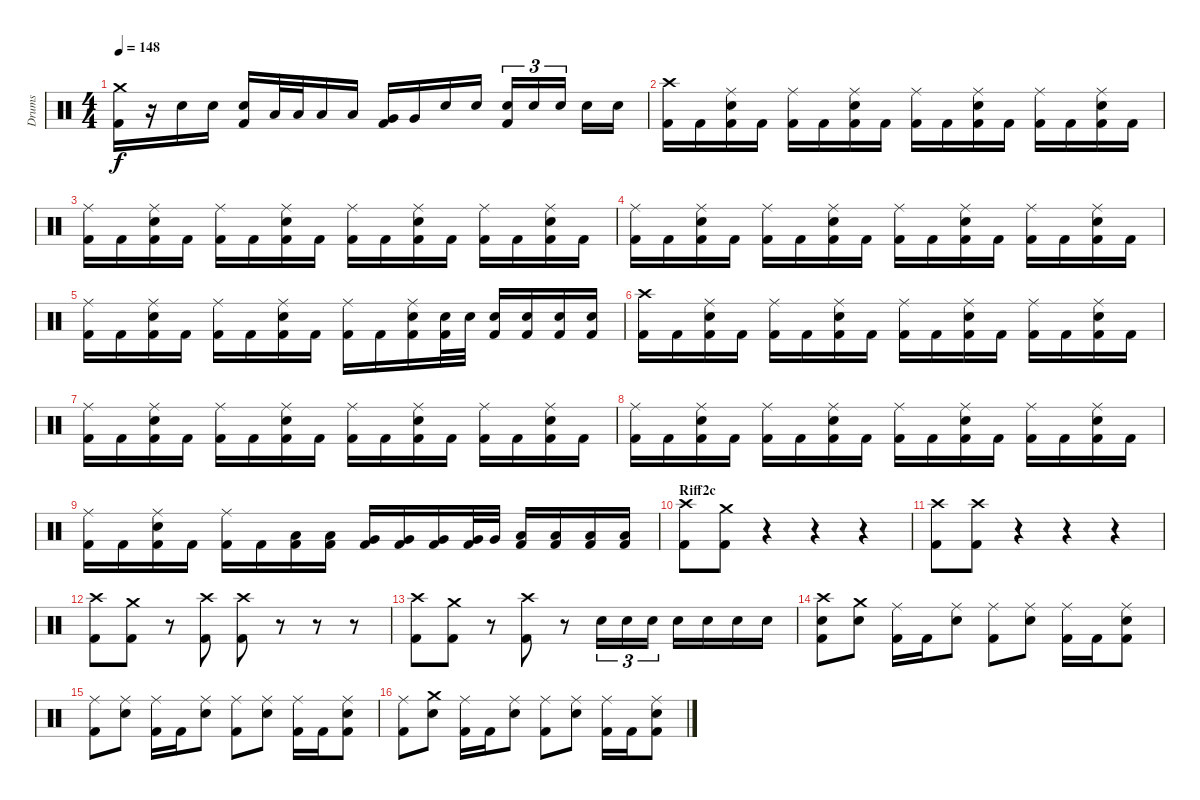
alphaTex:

\track ("Drums" "Drums") {instrument percussion}
\staff {score}
\articulation defaults
\ts (4 4)
\tempo 148
\clef neutral
\ks c
("Kick (hit) 2" "Crash medium (hit)").16{dy f} r.16 "Electric Snare (hit)".16 "Electric Snare (hit)".16 ("Kick (hit) 2" "Electric Snare (hit)").16 "Low Tom (hit)".32 "Low Tom (hit)".32 "Low Tom (hit)".16 "Low Tom (hit)".16 ("Kick (hit) 2" "Very Low Tom (hit)").16 "Very Low Tom (hit)".16 "Electric Snare (hit)".16 "Electric Snare (hit)".16 ("Kick (hit) 2" "Electric Snare (hit)").16{tu (3 2)} "Electric Snare (hit)".16{tu (3 2)} "Electric Snare (hit)".16{tu (3 2)} "Electric Snare (hit)".16 "Electric Snare (hit)".16 |
("Kick (hit) 2" "Crash high (hit)").16 "Kick (hit) 2".16 ("Kick (hit) 2" "Electric Snare (hit)" "Ride (middle)").16 "Kick (hit) 2".16 ("Kick (hit) 2" "Ride (middle)").16 "Kick (hit) 2".16 ("Kick (hit) 2" "Electric Snare (hit)" "Ride (middle)").16 "Kick (hit) 2".16 ("Kick (hit) 2" "Ride (middle)").16 "Kick (hit) 2".16 ("Kick (hit) 2" "Electric Snare (hit)" "Ride (middle)").16 "Kick (hit) 2".16 ("Kick (hit) 2" "Ride (middle)").16 "Kick (hit) 2".16 ("Kick (hit) 2" "Electric Snare (hit)" "Ride (middle)").16 "Kick (hit) 2".16 |
("Kick (hit) 2" "Ride (middle)").16 "Kick (hit) 2".16 ("Kick (hit) 2" "Electric Snare (hit)" "Ride (middle)").16 "Kick (hit) 2".16 ("Kick (hit) 2" "Ride (middle)").16 "Kick (hit) 2".16 ("Kick (hit) 2" "Electric Snare (hit)" "Ride (middle)").16 "Kick (hit) 2".16 ("Kick (hit) 2" "Ride (middle)").16 "Kick (hit) 2".16 ("Kick (hit) 2" "Electric Snare (hit)" "Ride (middle)").16 "Kick (hit) 2".16 ("Kick (hit) 2" "Ride (middle)").16 "Kick (hit) 2".16 ("Kick (hit) 2" "Electric Snare (hit)" "Ride (middle)").16 "Kick (hit) 2".16 |
("Kick (hit) 2" "Ride (middle)").16 "Kick (hit) 2".16 ("Kick (hit) 2" "Electric Snare (hit)" "Ride (middle)").16 "Kick (hit) 2".16 ("Kick (hit) 2" "Ride (middle)").16 "Kick (hit) 2".16 ("Kick (hit) 2" "Electric Snare (hit)" "Ride (middle)").16 "Kick (hit) 2".16 ("Kick (hit) 2" "Ride (middle)").16 "Kick (hit) 2".16 ("Kick (hit) 2" "Electric Snare (hit)" "Ride (middle)").16 "Kick (hit) 2".16 ("Kick (hit) 2" "Ride (middle)").16 "Kick (hit) 2".16 ("Kick (hit) 2" "Electric Snare (hit)" "Ride (middle)").16 "Kick (hit) 2".16 |
("Kick (hit) 2" "Ride (middle)").16 "Kick (hit) 2".16 ("Kick (hit) 2" "Electric Snare (hit)" "Ride (middle)").16 "Kick (hit) 2".16 ("Kick (hit) 2" "Ride (middle)").16 "Kick (hit) 2".16 ("Kick (hit) 2" "Electric Snare (hit)" "Ride (middle)").16 "Kick (hit) 2".16 ("Kick (hit) 2" "Ride (middle)").16 "Kick (hit) 2".16 ("Kick (hit) 2" "Electric Snare (hit)" "Ride (middle)").16 ("Kick (hit) 2" "Electric Snare (hit)").32 "Electric Snare (hit)".32 ("Kick (hit) 2" "Electric Snare (hit)").16 ("Kick (hit) 2" "Electric Snare (hit)").16 ("Kick (hit) 2" "Electric Snare (hit)").16 ("Kick (hit) 2" "Electric Snare (hit)").16 |
("Kick (hit) 2" "Crash high (hit)").16 "Kick (hit) 2".16 ("Kick (hit) 2" "Electric Snare (hit)" "Ride (middle)").16 "Kick (hit) 2".16 ("Kick (hit) 2" "Ride (middle)").16 "Kick (hit) 2".16 ("Kick (hit) 2" "Electric Snare (hit)" "Ride (middle)").16 "Kick (hit) 2".16 ("Kick (hit) 2" "Ride (middle)").16 "Kick (hit) 2".16 ("Kick (hit) 2" "Electric Snare (hit)" "Ride (middle)").16 "Kick (hit) 2".16 ("Kick (hit) 2" "Ride (middle)").16 "Kick (hit) 2".16 ("Kick (hit) 2" "Electric Snare (hit)" "Ride (middle)").16 "Kick (hit) 2".16 |
("Kick (hit) 2" "Ride (middle)").16 "Kick (hit) 2".16 ("Kick (hit) 2" "Electric Snare (hit)" "Ride (middle)").16 "Kick (hit) 2".16 ("Kick (hit) 2" "Ride (middle)").16 "Kick (hit) 2".16 ("Kick (hit) 2" "Electric Snare (hit)" "Ride (middle)").16 "Kick (hit) 2".16 ("Kick (hit) 2" "Ride (middle)").16 "Kick (hit) 2".16 ("Kick (hit) 2" "Electric Snare (hit)" "Ride (middle)").16 "Kick (hit) 2".16 ("Kick (hit) 2" "Ride (middle)").16 "Kick (hit) 2".16 ("Kick (hit) 2" "Electric Snare (hit)" "Ride (middle)").16 "Kick (hit) 2".16 |
("Kick (hit) 2" "Ride (middle)").16 "Kick (hit) 2".16 ("Kick (hit) 2" "Electric Snare (hit)" "Ride (middle)").16 "Kick (hit) 2".16 ("Kick (hit) 2" "Ride (middle)").16 "Kick (hit) 2".16 ("Kick (hit) 2" "Electric Snare (hit)" "Ride (middle)").16 "Kick (hit) 2".16 ("Kick (hit) 2" "Ride (middle)").16 "Kick (hit) 2".16 ("Kick (hit) 2" "Electric Snare (hit)" "Ride (middle)").16 "Kick (hit) 2".16 ("Kick (hit) 2" "Ride (middle)").16 "Kick (hit) 2".16 ("Kick (hit) 2" "Electric Snare (hit)" "Ride (middle)").16 "Kick (hit) 2".16 |
("Kick (hit) 2" "Ride (middle)").16 "Kick (hit) 2".16 ("Kick (hit) 2" "Electric Snare (hit)" "Ride (middle)").16 "Kick (hit) 2".16 ("Kick (hit) 2" "Ride (middle)").16 "Kick (hit) 2".16 ("Kick (hit) 2" "Low Tom (hit)").16 ("Kick (hit) 2" "Low Tom (hit)").16 ("Kick (hit) 2" "Very Low Tom (hit)").16 ("Kick (hit) 2" "Very Low Tom (hit)").16 ("Kick (hit) 2" "Very Low Tom (hit)").16 ("Kick (hit) 2" "Very Low Tom (hit)").32 "Very Low Tom (hit)".32 ("Kick (hit) 2" "Low Floor Tom (hit)").16 ("Kick (hit) 2" "Low Floor Tom (hit)").16 ("Kick (hit) 2" "Low Floor Tom (hit)").16 ("Kick (hit) 2" "Low Floor Tom (hit)").16 |
\section ("" "Riff2c")
("Kick (hit) 2" "Crash high (hit)").8 ("Kick (hit) 2" "Crash medium (hit)").8 r.4 r.4 r.4 |
("Kick (hit) 2" "Crash high (hit)").8 ("Kick (hit) 2" "Crash high (hit)").8 r.4 r.4 r.4 |
("Kick (hit) 2" "Crash high (hit)").8 ("Kick (hit) 2" "Crash medium (hit)").8 r.8 ("Kick (hit) 2" "Crash high (hit)").8 ("Kick (hit) 2" "Crash high (hit)").8 r.8 r.8 r.8 |
("Kick (hit) 2" "Crash high (hit)").8 ("Kick (hit) 2" "Crash medium (hit)").8 r.8 ("Kick (hit) 2" "Crash high (hit)").8 r.8 "Electric Snare (hit)".16{tu (3 2)} "Electric Snare (hit)".16{tu (3 2)} "Electric Snare (hit)".16{tu (3 2)} "Electric Snare (hit)".16 "Electric Snare (hit)".16 "Electric Snare (hit)".16 "Electric Snare (hit)".16 |
("Kick (hit) 2" "Electric Snare (hit)" "Crash high (hit)").8 ("Electric Snare (hit)" "Crash medium (hit)").8 ("Kick (hit) 2" "Ride (middle)").16 "Kick (hit) 2".16 ("Electric Snare (hit)" "Ride (middle)").8 ("Kick (hit) 2" "Ride (middle)").8 ("Electric Snare (hit)" "Ride (middle)").8 ("Kick (hit) 2" "Ride (middle)").16 "Kick (hit) 2".16 ("Kick (hit) 2" "Electric Snare (hit)" "Ride (middle)").8 |
("Kick (hit) 2" "Ride (middle)").8 ("Electric Snare (hit)" "Ride (middle)").8 ("Kick (hit) 2" "Ride (middle)").16 "Kick (hit) 2".16 ("Electric Snare (hit)" "Ride (middle)").8 ("Kick (hit) 2" "Ride (middle)").8 ("Electric Snare (hit)" "Ride (middle)").8 ("Kick (hit) 2" "Ride (middle)").16 "Kick (hit) 2".16 ("Kick (hit) 2" "Electric Snare (hit)" "Ride (middle)").8 |
("Kick (hit) 2" "Ride (middle)").8 ("Electric Snare (hit)" "Crash medium (hit)").8 ("Kick (hit) 2" "Ride (middle)").16 "Kick (hit) 2".16 ("Electric Snare (hit)" "Ride (middle)").8 ("Kick (hit) 2" "Ride (middle)").8 ("Electric Snare (hit)" "Ride (middle)").8 ("Kick (hit) 2" "Ride (middle)").16 "Kick (hit) 2".16 ("Kick (hit) 2" "Electric Snare (hit)" "Ride (middle)").8
